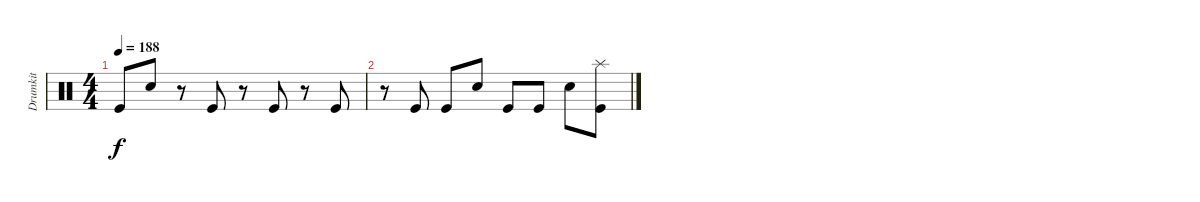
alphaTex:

\track ("Drumkit" "Drumkit") {instrument percussion}
\staff {score}
\articulation defaults
\ts (4 4)
\tempo 188
\clef neutral
\ks c "Kick (hit)".8{dy f} "Snare (hit) 2".8
r.8 "Kick (hit)".8 r.8 "Kick (hit)".8 r.8 "Kick (hit)".8 |
r.8 "Kick (hit)".8 "Kick (hit)".8 "Snare (hit) 2".8 "Kick (hit)".8 "Kick (hit)".8 "Snare (hit) 2".8 ("Kick (hit)" "Splash (hit)").8
